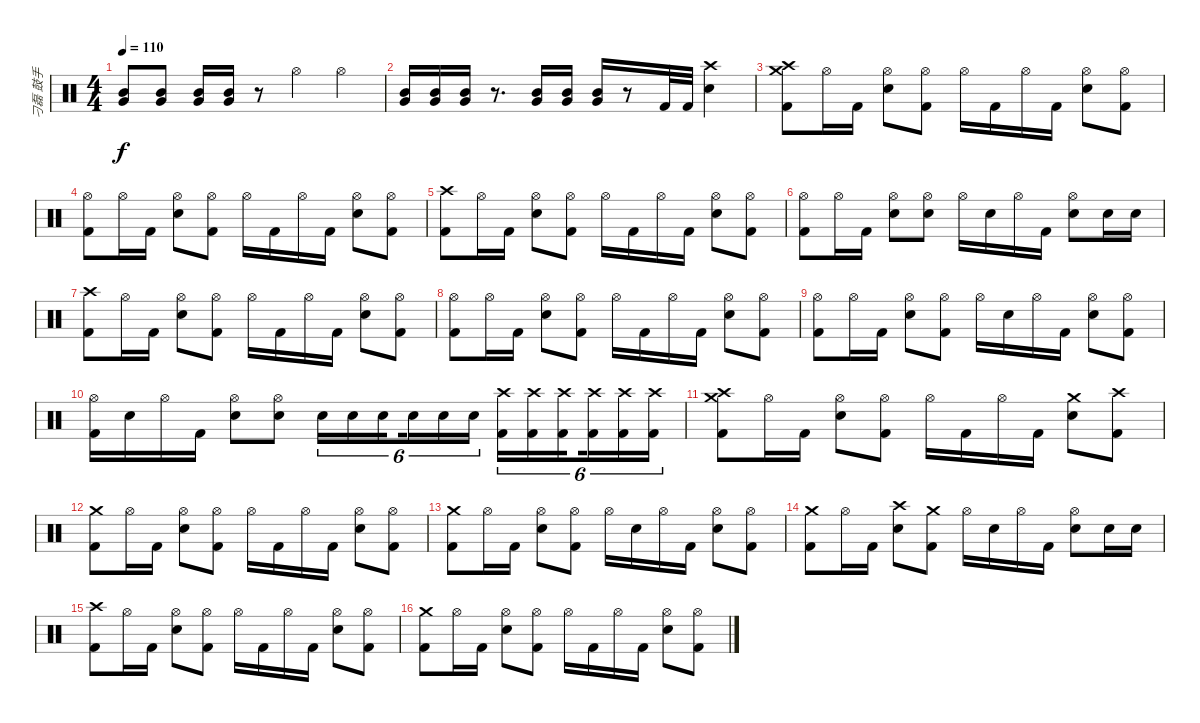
\track ("刁磊 鼓手" "刁磊 鼓手") {instrument percussion}
\staff {score}
\articulation defaults
\ts (4 4)
\tempo 110
\clef neutral
\ks c
("Mid Tom (hit)" "Very Low Tom (hit)").8{dy f} ("Mid Tom (hit)" "Very Low Tom (hit)").8 ("Mid Tom (hit)" "Very Low Tom (hit)").16 ("Mid Tom (hit)" "Very Low Tom (hit)").16 r.8 "Hi-Hat (open)".4 "Hi-Hat (open)".4 |
("Very Low Tom (hit)" "Mid Tom (hit)").16 ("Very Low Tom (hit)" "Mid Tom (hit)").16 ("Very Low Tom (hit)" "Mid Tom (hit)").16 r.8{d} ("Very Low Tom (hit)" "Mid Tom (hit)").16 ("Very Low Tom (hit)" "Mid Tom (hit)").16 ("Very Low Tom (hit)" "Mid Tom (hit)").16 r.8 "Kick (hit) 2".32 "Kick (hit) 2".32 ("Crash high (hit)" "Snare (hit) 2").4 |
("Crash high (hit)" "Crash medium (hit)" "Kick (hit) 2").8 "Hi-Hat (open)".16 "Kick (hit) 2".16 ("Hi-Hat (open)" "Snare (hit) 2").8 ("Hi-Hat (open)" "Kick (hit) 2").8 "Hi-Hat (open)".16 "Kick (hit) 2".16 "Hi-Hat (open)".16 "Kick (hit) 2".16 ("Hi-Hat (open)" "Snare (hit) 2").8 ("Hi-Hat (open)" "Kick (hit) 2").8 |
("Hi-Hat (open)" "Kick (hit) 2").8 "Hi-Hat (open)".16 "Kick (hit) 2".16 ("Hi-Hat (open)" "Snare (hit) 2").8 ("Hi-Hat (open)" "Kick (hit) 2").8 "Hi-Hat (open)".16 "Kick (hit) 2".16 "Hi-Hat (open)".16 "Kick (hit) 2".16 ("Hi-Hat (open)" "Snare (hit) 2").8 ("Hi-Hat (open)" "Kick (hit) 2").8 |
("Crash high (hit)" "Kick (hit) 2").8 "Hi-Hat (open)".16 "Kick (hit) 2".16 ("Hi-Hat (open)" "Snare (hit) 2").8 ("Hi-Hat (open)" "Kick (hit) 2").8 "Hi-Hat (open)".16 "Kick (hit) 2".16 "Hi-Hat (open)".16 "Kick (hit) 2".16 ("Hi-Hat (open)" "Snare (hit) 2").8 ("Hi-Hat (open)" "Kick (hit) 2").8 |
("Hi-Hat (open)" "Kick (hit) 2").8 "Hi-Hat (open)".16 "Kick (hit) 2".16 ("Hi-Hat (open)" "Snare (hit) 2").8 ("Hi-Hat (open)" "Snare (hit) 2").8 "Hi-Hat (open)".16 "Snare (hit) 2".16 "Hi-Hat (open)".16 "Kick (hit) 2".16 ("Hi-Hat (open)" "Snare (hit) 2").8 "Snare (hit) 2".16 "Snare (hit) 2".16 |
("Crash high (hit)" "Kick (hit) 2").8 "Hi-Hat (open)".16 "Kick (hit) 2".16 ("Hi-Hat (open)" "Snare (hit) 2").8 ("Hi-Hat (open)" "Kick (hit) 2").8 "Hi-Hat (open)".16 "Kick (hit) 2".16 "Hi-Hat (open)".16 "Kick (hit) 2".16 ("Hi-Hat (open)" "Snare (hit) 2").8 ("Hi-Hat (open)" "Kick (hit) 2").8 |
("Hi-Hat (open)" "Kick (hit) 2").8 "Hi-Hat (open)".16 "Kick (hit) 2".16 ("Hi-Hat (open)" "Snare (hit) 2").8 ("Hi-Hat (open)" "Kick (hit) 2").8 "Hi-Hat (open)".16 "Kick (hit) 2".16 "Hi-Hat (open)".16 "Kick (hit) 2".16 ("Hi-Hat (open)" "Snare (hit) 2").8 ("Hi-Hat (open)" "Kick (hit) 2").8 |
("Hi-Hat (open)" "Kick (hit) 2").8 "Hi-Hat (open)".16 "Kick (hit) 2".16 ("Hi-Hat (open)" "Snare (hit) 2").8 ("Hi-Hat (open)" "Kick (hit) 2").8 "Hi-Hat (open)".16 "Snare (hit) 2".16 "Hi-Hat (open)".16 "Kick (hit) 2".16 ("Hi-Hat (open)" "Snare (hit) 2").8 ("Hi-Hat (open)" "Kick (hit) 2").8 |
("Hi-Hat (open)" "Kick (hit) 2").16 "Snare (hit) 2".16 "Hi-Hat (open)".16 "Kick (hit) 2".16 ("Hi-Hat (open)" "Snare (hit) 2").8 ("Hi-Hat (open)" "Snare (hit) 2").8 "Snare (hit) 2".16{tu (6 4)} "Snare (hit) 2".16{tu (6 4)} "Snare (hit) 2".16{tu (6 4) beam splitsecondary} "Snare (hit) 2".16{tu (6 4)} "Snare (hit) 2".16{tu (6 4)} "Snare (hit) 2".16{tu (6 4)} ("Crash high (hit)" "Kick (hit) 2").16{tu (6 4)} ("Crash high (hit)" "Kick (hit) 2").16{tu (6 4)} ("Crash high (hit)" "Kick (hit) 2").16{tu (6 4) beam splitsecondary} ("Crash high (hit)" "Kick (hit) 2").16{tu (6 4)} ("Crash high (hit)" "Kick (hit) 2").16{tu (6 4)} ("Crash high (hit)" "Kick (hit) 2").16{tu (6 4)} |
("Crash high (hit)" "Crash medium (hit)" "Kick (hit) 2").8 "Hi-Hat (open)".16 "Kick (hit) 2".16 ("Hi-Hat (open)" "Snare (hit) 2").8 ("Hi-Hat (open)" "Kick (hit) 2").8 "Hi-Hat (open)".16 "Kick (hit) 2".16 "Hi-Hat (open)".16 "Kick (hit) 2".16 ("Crash medium (hit)" "Snare (hit) 2").8 ("Crash high (hit)" "Kick (hit) 2").8 |
("Crash medium (hit)" "Kick (hit) 2").8 "Hi-Hat (open)".16 "Kick (hit) 2".16 ("Hi-Hat (open)" "Snare (hit) 2").8 ("Hi-Hat (open)" "Kick (hit) 2").8 "Hi-Hat (open)".16 "Kick (hit) 2".16 "Hi-Hat (open)".16 "Kick (hit) 2".16 ("Hi-Hat (open)" "Snare (hit) 2").8 ("Hi-Hat (open)" "Kick (hit) 2").8 |
("Crash medium (hit)" "Kick (hit) 2").8 "Hi-Hat (open)".16 "Kick (hit) 2".16 ("Hi-Hat (open)" "Snare (hit) 2").8 ("Hi-Hat (open)" "Kick (hit) 2").8 "Hi-Hat (open)".16 "Snare (hit) 2".16 "Hi-Hat (open)".16 "Kick (hit) 2".16 ("Hi-Hat (open)" "Snare (hit) 2").8 ("Hi-Hat (open)" "Kick (hit) 2").8 |
("Crash medium (hit)" "Kick (hit) 2").8 "Hi-Hat (open)".16 "Kick (hit) 2".16 ("Crash high (hit)" "Snare (hit) 2").8 ("Crash medium (hit)" "Kick (hit) 2").8 "Hi-Hat (open)".16 "Snare (hit) 2".16 "Hi-Hat (open)".16 "Kick (hit) 2".16 ("Hi-Hat (open)" "Snare (hit) 2").8 "Snare (hit) 2".16 "Snare (hit) 2".16 |
("Crash high (hit)" "Kick (hit) 2").8 "Hi-Hat (open)".16 "Kick (hit) 2".16 ("Hi-Hat (open)" "Snare (hit) 2").8 ("Hi-Hat (open)" "Kick (hit) 2").8 "Hi-Hat (open)".16 "Kick (hit) 2".16 "Hi-Hat (open)".16 "Kick (hit) 2".16 ("Hi-Hat (open)" "Snare (hit) 2").8 ("Hi-Hat (open)" "Kick (hit) 2").8 |
("Crash medium (hit)" "Kick (hit) 2").8 "Hi-Hat (open)".16 "Kick (hit) 2".16 ("Hi-Hat (open)" "Snare (hit) 2").8 ("Hi-Hat (open)" "Kick (hit) 2").8 "Hi-Hat (open)".16 "Kick (hit) 2".16 "Hi-Hat (open)".16 "Kick (hit) 2".16 ("Hi-Hat (open)" "Snare (hit) 2").8 ("Hi-Hat (open)" "Kick (hit) 2").8
